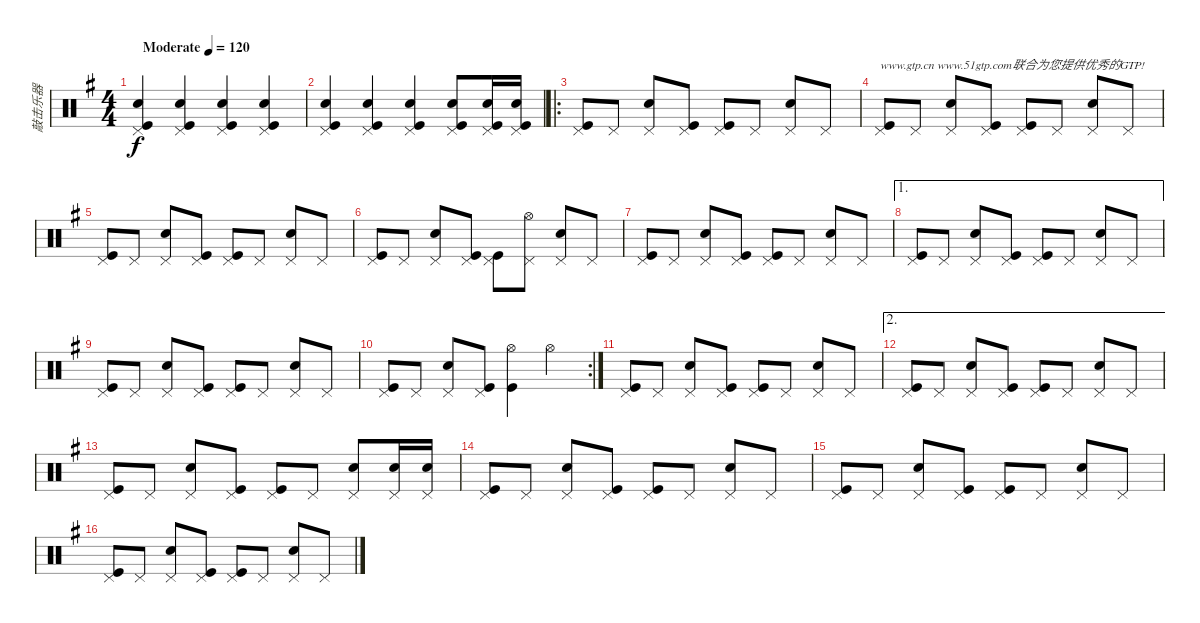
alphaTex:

\track ("敲击乐器" "敲击乐器") {instrument percussion}
\staff {score}
\articulation defaults
\ts (4 4)
\tempo (120 "Moderate")
\clef neutral
\ks g
("Snare (hit) 2" "Kick (hit)" "Pedal Hi-Hat (hit)").4{dy f} ("Snare (hit) 2" "Kick (hit)" "Pedal Hi-Hat (hit)").4 ("Snare (hit) 2" "Kick (hit)" "Pedal Hi-Hat (hit)").4 ("Snare (hit) 2" "Kick (hit)" "Pedal Hi-Hat (hit)").4 |
("Snare (hit) 2" "Kick (hit)" "Pedal Hi-Hat (hit)").4 ("Snare (hit) 2" "Kick (hit)" "Pedal Hi-Hat (hit)").4 ("Snare (hit) 2" "Kick (hit)" "Pedal Hi-Hat (hit)").4 ("Snare (hit) 2" "Kick (hit)" "Pedal Hi-Hat (hit)").8 ("Snare (hit) 2" "Kick (hit)" "Pedal Hi-Hat (hit)").16 ("Snare (hit) 2" "Kick (hit)" "Pedal Hi-Hat (hit)").16 |
\ro
("Kick (hit)" "Pedal Hi-Hat (hit)").8 "Pedal Hi-Hat (hit)".8 ("Snare (hit) 2" "Pedal Hi-Hat (hit)").8 ("Kick (hit)" "Pedal Hi-Hat (hit)").8 ("Kick (hit)" "Pedal Hi-Hat (hit)").8 "Pedal Hi-Hat (hit)".8 ("Snare (hit) 2" "Pedal Hi-Hat (hit)").8 "Pedal Hi-Hat (hit)".8 |
("Kick (hit)" "Pedal Hi-Hat (hit)").8{txt "www.gtp.cn www.51gtp.com联合为您提供优秀的GTP!"} "Pedal Hi-Hat (hit)".8 ("Snare (hit) 2" "Pedal Hi-Hat (hit)").8 ("Kick (hit)" "Pedal Hi-Hat (hit)").8 ("Kick (hit)" "Pedal Hi-Hat (hit)").8 "Pedal Hi-Hat (hit)".8 ("Snare (hit) 2" "Pedal Hi-Hat (hit)").8 "Pedal Hi-Hat (hit)".8 |
("Kick (hit)" "Pedal Hi-Hat (hit)").8 "Pedal Hi-Hat (hit)".8 ("Snare (hit) 2" "Pedal Hi-Hat (hit)").8 ("Kick (hit)" "Pedal Hi-Hat (hit)").8 ("Kick (hit)" "Pedal Hi-Hat (hit)").8 "Pedal Hi-Hat (hit)".8 ("Snare (hit) 2" "Pedal Hi-Hat (hit)").8 "Pedal Hi-Hat (hit)".8 |
("Kick (hit)" "Pedal Hi-Hat (hit)").8 "Pedal Hi-Hat (hit)".8 ("Snare (hit) 2" "Pedal Hi-Hat (hit)").8 ("Kick (hit)" "Pedal Hi-Hat (hit)").8 ("Kick (hit)" "Pedal Hi-Hat (hit)").8 ("Hi-Hat (open)" "Pedal Hi-Hat (hit)").8 ("Snare (hit) 2" "Pedal Hi-Hat (hit)").8 "Pedal Hi-Hat (hit)".8 |
("Kick (hit)" "Pedal Hi-Hat (hit)").8 "Pedal Hi-Hat (hit)".8 ("Snare (hit) 2" "Pedal Hi-Hat (hit)").8 ("Kick (hit)" "Pedal Hi-Hat (hit)").8 ("Kick (hit)" "Pedal Hi-Hat (hit)").8 "Pedal Hi-Hat (hit)".8 ("Snare (hit) 2" "Pedal Hi-Hat (hit)").8 "Pedal Hi-Hat (hit)".8 |
\ae 1
("Kick (hit)" "Pedal Hi-Hat (hit)").8 "Pedal Hi-Hat (hit)".8 ("Snare (hit) 2" "Pedal Hi-Hat (hit)").8 ("Kick (hit)" "Pedal Hi-Hat (hit)").8 ("Kick (hit)" "Pedal Hi-Hat (hit)").8 "Pedal Hi-Hat (hit)".8 ("Snare (hit) 2" "Pedal Hi-Hat (hit)").8 "Pedal Hi-Hat (hit)".8 |
("Kick (hit)" "Pedal Hi-Hat (hit)").8 "Pedal Hi-Hat (hit)".8 ("Snare (hit) 2" "Pedal Hi-Hat (hit)").8 ("Kick (hit)" "Pedal Hi-Hat (hit)").8 ("Kick (hit)" "Pedal Hi-Hat (hit)").8 "Pedal Hi-Hat (hit)".8 ("Snare (hit) 2" "Pedal Hi-Hat (hit)").8 "Pedal Hi-Hat (hit)".8 |
\rc 2
("Kick (hit)" "Pedal Hi-Hat (hit)").8 "Pedal Hi-Hat (hit)".8 ("Snare (hit) 2" "Pedal Hi-Hat (hit)").8 ("Kick (hit)" "Pedal Hi-Hat (hit)").8 ("Hi-Hat (open)" "Kick (hit)").4 "Hi-Hat (open)".4 |
("Kick (hit)" "Pedal Hi-Hat (hit)").8 "Pedal Hi-Hat (hit)".8 ("Snare (hit) 2" "Pedal Hi-Hat (hit)").8 ("Kick (hit)" "Pedal Hi-Hat (hit)").8 ("Kick (hit)" "Pedal Hi-Hat (hit)").8 "Pedal Hi-Hat (hit)".8 ("Snare (hit) 2" "Pedal Hi-Hat (hit)").8 "Pedal Hi-Hat (hit)".8 |
\ae 2
("Kick (hit)" "Pedal Hi-Hat (hit)").8 "Pedal Hi-Hat (hit)".8 ("Snare (hit) 2" "Pedal Hi-Hat (hit)").8 ("Kick (hit)" "Pedal Hi-Hat (hit)").8 ("Kick (hit)" "Pedal Hi-Hat (hit)").8 "Pedal Hi-Hat (hit)".8 ("Snare (hit) 2" "Pedal Hi-Hat (hit)").8 "Pedal Hi-Hat (hit)".8 |
("Kick (hit)" "Pedal Hi-Hat (hit)").8 "Pedal Hi-Hat (hit)".8 ("Snare (hit) 2" "Pedal Hi-Hat (hit)").8 ("Kick (hit)" "Pedal Hi-Hat (hit)").8 ("Kick (hit)" "Pedal Hi-Hat (hit)").8 "Pedal Hi-Hat (hit)".8 ("Snare (hit) 2" "Pedal Hi-Hat (hit)").8 ("Snare (hit) 2" "Pedal Hi-Hat (hit)").16 ("Snare (hit) 2" "Pedal Hi-Hat (hit)").16 |
("Kick (hit)" "Pedal Hi-Hat (hit)").8 "Pedal Hi-Hat (hit)".8 ("Snare (hit) 2" "Pedal Hi-Hat (hit)").8 ("Kick (hit)" "Pedal Hi-Hat (hit)").8 ("Kick (hit)" "Pedal Hi-Hat (hit)").8 "Pedal Hi-Hat (hit)".8 ("Snare (hit) 2" "Pedal Hi-Hat (hit)").8 "Pedal Hi-Hat (hit)".8 |
("Kick (hit)" "Pedal Hi-Hat (hit)").8 "Pedal Hi-Hat (hit)".8 ("Snare (hit) 2" "Pedal Hi-Hat (hit)").8 ("Kick (hit)" "Pedal Hi-Hat (hit)").8 ("Kick (hit)" "Pedal Hi-Hat (hit)").8 "Pedal Hi-Hat (hit)".8 ("Snare (hit) 2" "Pedal Hi-Hat (hit)").8 "Pedal Hi-Hat (hit)".8 |
("Kick (hit)" "Pedal Hi-Hat (hit)").8 "Pedal Hi-Hat (hit)".8 ("Snare (hit) 2" "Pedal Hi-Hat (hit)").8 ("Kick (hit)" "Pedal Hi-Hat (hit)").8 ("Kick (hit)" "Pedal Hi-Hat (hit)").8 "Pedal Hi-Hat (hit)".8 ("Snare (hit) 2" "Pedal Hi-Hat (hit)").8 "Pedal Hi-Hat (hit)".8
